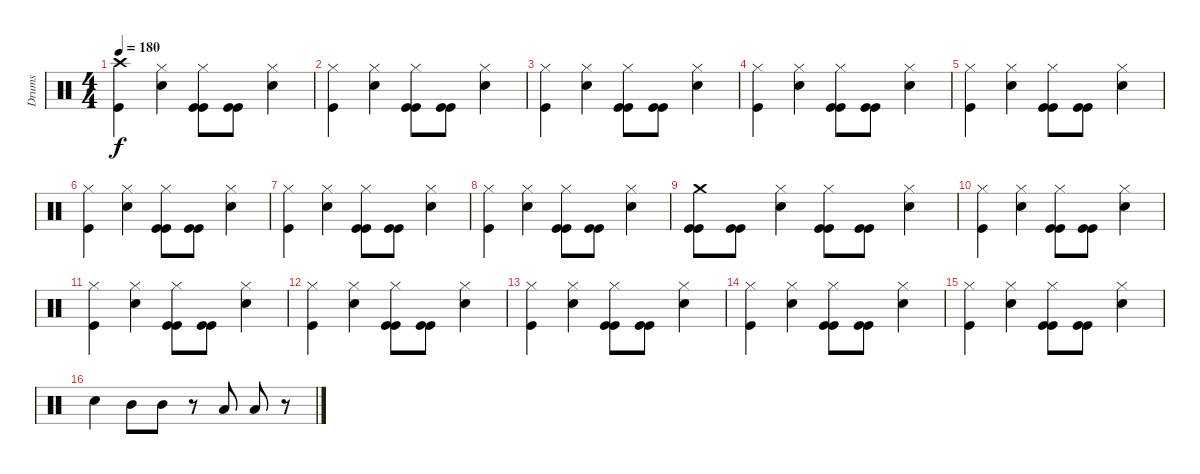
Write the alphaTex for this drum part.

\track ("Drums" "Drums") {instrument percussion}
\staff {score}
\articulation defaults
\ts (4 4)
\tempo 180
\clef neutral
\ks c
("Crash high (hit)" "Kick (hit)").4{dy f} ("Hi-Hat (closed)" "Snare (hit) 2").4 ("Hi-Hat (closed)" "Kick (hit)" "Kick (hit)").8 ("Kick (hit)" "Kick (hit)").8 ("Hi-Hat (closed)" "Snare (hit) 2").4 |
("Hi-Hat (closed)" "Kick (hit)").4 ("Hi-Hat (closed)" "Snare (hit) 2").4 ("Hi-Hat (closed)" "Kick (hit)" "Kick (hit)").8 ("Kick (hit)" "Kick (hit)").8 ("Hi-Hat (closed)" "Snare (hit) 2").4 |
("Hi-Hat (closed)" "Kick (hit)").4 ("Hi-Hat (closed)" "Snare (hit) 2").4 ("Hi-Hat (closed)" "Kick (hit)" "Kick (hit)").8 ("Kick (hit)" "Kick (hit)").8 ("Hi-Hat (closed)" "Snare (hit) 2").4 |
("Hi-Hat (closed)" "Kick (hit)").4 ("Hi-Hat (closed)" "Snare (hit) 2").4 ("Hi-Hat (closed)" "Kick (hit)" "Kick (hit)").8 ("Kick (hit)" "Kick (hit)").8 ("Hi-Hat (closed)" "Snare (hit) 2").4 |
("Hi-Hat (closed)" "Kick (hit)").4 ("Hi-Hat (closed)" "Snare (hit) 2").4 ("Hi-Hat (closed)" "Kick (hit)" "Kick (hit)").8 ("Kick (hit)" "Kick (hit)").8 ("Hi-Hat (closed)" "Snare (hit) 2").4 |
("Hi-Hat (closed)" "Kick (hit)").4 ("Hi-Hat (closed)" "Snare (hit) 2").4 ("Hi-Hat (closed)" "Kick (hit)" "Kick (hit)").8 ("Kick (hit)" "Kick (hit)").8 ("Hi-Hat (closed)" "Snare (hit) 2").4 |
("Hi-Hat (closed)" "Kick (hit)").4 ("Hi-Hat (closed)" "Snare (hit) 2").4 ("Hi-Hat (closed)" "Kick (hit)" "Kick (hit)").8 ("Kick (hit)" "Kick (hit)").8 ("Hi-Hat (closed)" "Snare (hit) 2").4 |
("Hi-Hat (closed)" "Kick (hit)").4 ("Hi-Hat (closed)" "Snare (hit) 2").4 ("Hi-Hat (closed)" "Kick (hit)" "Kick (hit)").8 ("Kick (hit)" "Kick (hit)").8 ("Hi-Hat (closed)" "Snare (hit) 2").4 |
("Crash medium (hit)" "Kick (hit)" "Kick (hit)").8 ("Kick (hit)" "Kick (hit)").8 ("Hi-Hat (closed)" "Snare (hit) 2").4 ("Hi-Hat (closed)" "Kick (hit)" "Kick (hit)").8 ("Kick (hit)" "Kick (hit)").8 ("Hi-Hat (closed)" "Snare (hit) 2").4 |
("Hi-Hat (closed)" "Kick (hit)").4 ("Hi-Hat (closed)" "Snare (hit) 2").4 ("Hi-Hat (closed)" "Kick (hit)" "Kick (hit)").8 ("Kick (hit)" "Kick (hit)").8 ("Hi-Hat (closed)" "Snare (hit) 2").4 |
("Hi-Hat (closed)" "Kick (hit)").4 ("Hi-Hat (closed)" "Snare (hit) 2").4 ("Hi-Hat (closed)" "Kick (hit)" "Kick (hit)").8 ("Kick (hit)" "Kick (hit)").8 ("Hi-Hat (closed)" "Snare (hit) 2").4 |
("Hi-Hat (closed)" "Kick (hit)").4 ("Hi-Hat (closed)" "Snare (hit) 2").4 ("Hi-Hat (closed)" "Kick (hit)" "Kick (hit)").8 ("Kick (hit)" "Kick (hit)").8 ("Hi-Hat (closed)" "Snare (hit) 2").4 |
("Hi-Hat (closed)" "Kick (hit)").4 ("Hi-Hat (closed)" "Snare (hit) 2").4 ("Hi-Hat (closed)" "Kick (hit)" "Kick (hit)").8 ("Kick (hit)" "Kick (hit)").8 ("Hi-Hat (closed)" "Snare (hit) 2").4 |
("Hi-Hat (closed)" "Kick (hit)").4 ("Hi-Hat (closed)" "Snare (hit) 2").4 ("Hi-Hat (closed)" "Kick (hit)" "Kick (hit)").8 ("Kick (hit)" "Kick (hit)").8 ("Hi-Hat (closed)" "Snare (hit) 2").4 |
("Hi-Hat (closed)" "Kick (hit)").4 ("Hi-Hat (closed)" "Snare (hit) 2").4 ("Hi-Hat (closed)" "Kick (hit)" "Kick (hit)").8 ("Kick (hit)" "Kick (hit)").8 ("Hi-Hat (closed)" "Snare (hit) 2").4 |
"Snare (hit) 2".4 "Mid Tom (hit)".8 "Mid Tom (hit)".8 r.8 "Low Tom (hit)".8 "Low Tom (hit)".8 r.8
